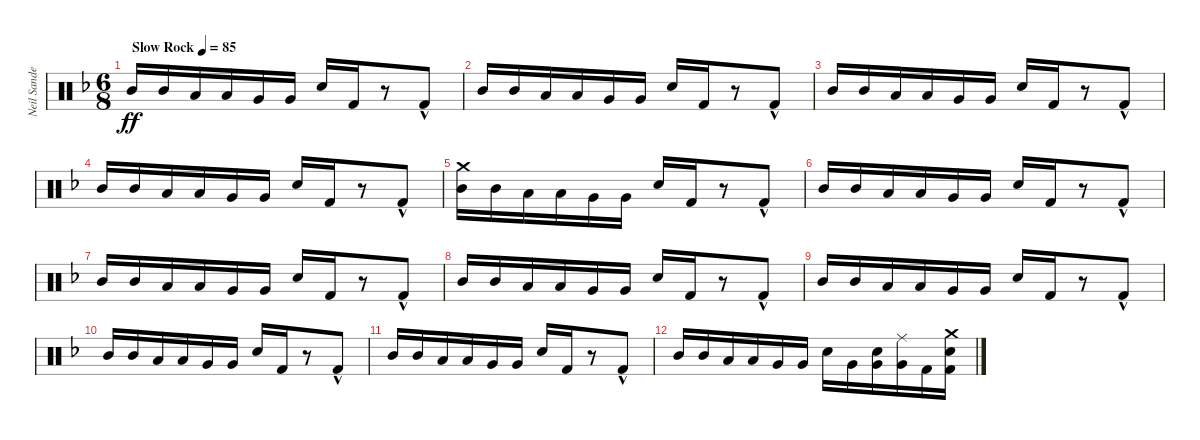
\track ("Neil Sanderson" "Neil Sande") {instrument percussion}
\staff {score}
\articulation defaults
\ts (6 8)
\tempo (85 "Slow Rock")
\clef neutral
\ks f "Mid Tom (hit)".16{dy ff} "Mid Tom (hit)".16 "Low Tom (hit)".16 "Low Tom (hit)".16 "Very Low Tom (hit)".16 "Very Low Tom (hit)".16 "Snare (hit) 2".16 "Kick (hit) 2".16
r.8 "Kick (hit) 2"{hac}.8 |
"Mid Tom (hit)".16 "Mid Tom (hit)".16 "Low Tom (hit)".16 "Low Tom (hit)".16 "Very Low Tom (hit)".16 "Very Low Tom (hit)".16 "Snare (hit) 2".16 "Kick (hit) 2".16 r.8 "Kick (hit) 2"{hac}.8 |
"Mid Tom (hit)".16 "Mid Tom (hit)".16 "Low Tom (hit)".16 "Low Tom (hit)".16 "Very Low Tom (hit)".16 "Very Low Tom (hit)".16 "Snare (hit) 2".16 "Kick (hit) 2".16 r.8 "Kick (hit) 2"{hac}.8 |
"Mid Tom (hit)".16 "Mid Tom (hit)".16 "Low Tom (hit)".16 "Low Tom (hit)".16 "Very Low Tom (hit)".16 "Very Low Tom (hit)".16 "Snare (hit) 2".16 "Kick (hit) 2".16 r.8 "Kick (hit) 2"{hac}.8 |
("Crash medium (hit)" "Mid Tom (hit)").16 "Mid Tom (hit)".16 "Low Tom (hit)".16 "Low Tom (hit)".16 "Very Low Tom (hit)".16 "Very Low Tom (hit)".16 "Snare (hit) 2".16 "Kick (hit) 2".16 r.8 "Kick (hit) 2"{hac}.8 |
"Mid Tom (hit)".16 "Mid Tom (hit)".16 "Low Tom (hit)".16 "Low Tom (hit)".16 "Very Low Tom (hit)".16 "Very Low Tom (hit)".16 "Snare (hit) 2".16 "Kick (hit) 2".16 r.8 "Kick (hit) 2"{hac}.8 |
"Mid Tom (hit)".16 "Mid Tom (hit)".16 "Low Tom (hit)".16 "Low Tom (hit)".16 "Very Low Tom (hit)".16 "Very Low Tom (hit)".16 "Snare (hit) 2".16 "Kick (hit) 2".16 r.8 "Kick (hit) 2"{hac}.8 |
"Mid Tom (hit)".16 "Mid Tom (hit)".16 "Low Tom (hit)".16 "Low Tom (hit)".16 "Very Low Tom (hit)".16 "Very Low Tom (hit)".16 "Snare (hit) 2".16 "Kick (hit) 2".16 r.8 "Kick (hit) 2"{hac}.8 |
"Mid Tom (hit)".16 "Mid Tom (hit)".16 "Low Tom (hit)".16 "Low Tom (hit)".16 "Very Low Tom (hit)".16 "Very Low Tom (hit)".16 "Snare (hit) 2".16 "Kick (hit) 2".16 r.8 "Kick (hit) 2"{hac}.8 |
"Mid Tom (hit)".16 "Mid Tom (hit)".16 "Low Tom (hit)".16 "Low Tom (hit)".16 "Very Low Tom (hit)".16 "Very Low Tom (hit)".16 "Snare (hit) 2".16 "Kick (hit) 2".16 r.8 "Kick (hit) 2"{hac}.8 |
"Mid Tom (hit)".16 "Mid Tom (hit)".16 "Low Tom (hit)".16 "Low Tom (hit)".16 "Very Low Tom (hit)".16 "Very Low Tom (hit)".16 "Snare (hit) 2".16 "Kick (hit) 2".16 r.8 "Kick (hit) 2"{hac}.8 |
"Mid Tom (hit)".16 "Mid Tom (hit)".16 "Low Tom (hit)".16 "Low Tom (hit)".16 "Very Low Tom (hit)".16 "Very Low Tom (hit)".16 "Snare (hit) 2".16 "Very Low Tom (hit)".16 ("Very Low Tom (hit)" "Snare (hit) 2").16 ("Ride (middle)" "Very Low Tom (hit)").16 "Kick (hit) 2".16 ("Crash medium (hit)" "Snare (hit) 2" "Kick (hit) 2").16
